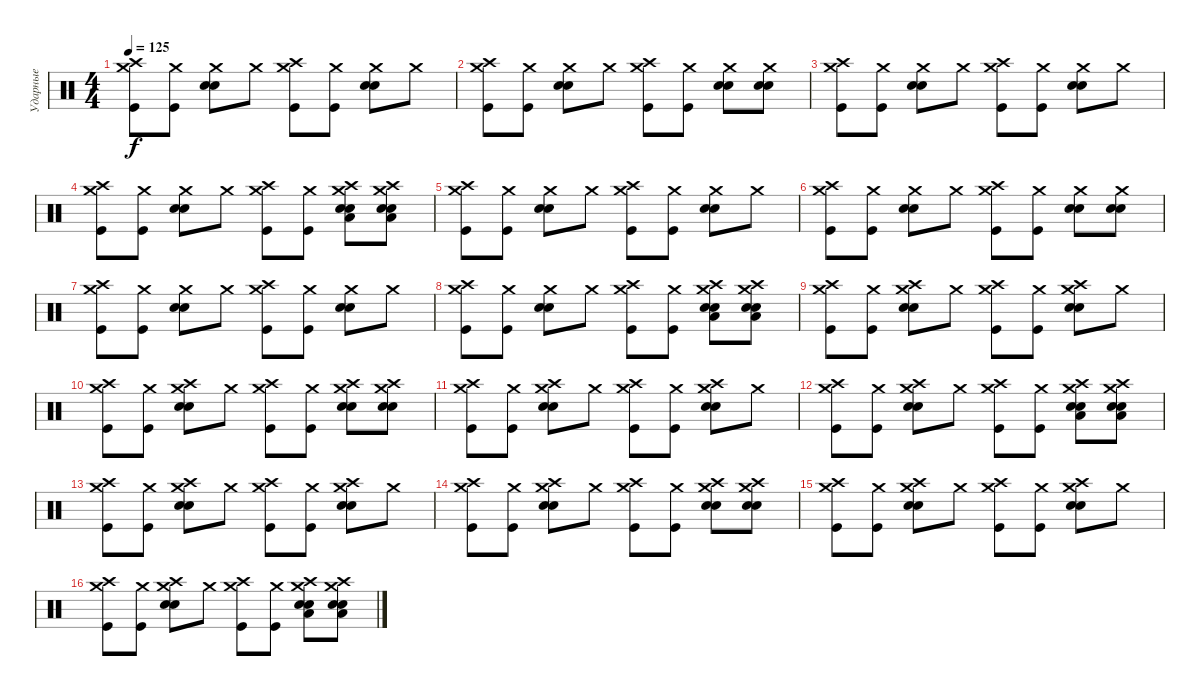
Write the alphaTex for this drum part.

\track ("Ударные" "Ударные") {instrument percussion}
\staff {score}
\articulation defaults
\ts (4 4)
\tempo 125
\clef neutral
\ks c
("Crash medium (hit)" "Crash high (hit)" "Kick (hit)").8{dy f} ("Crash medium (hit)" "Kick (hit)").8 ("Crash medium (hit)" "Snare (hit) 2" "Snare (hit) 2").8 "Crash medium (hit)".8 ("Crash medium (hit)" "Crash high (hit)" "Kick (hit)").8 ("Crash medium (hit)" "Kick (hit)").8 ("Crash medium (hit)" "Snare (hit) 2" "Snare (hit) 2").8 "Crash medium (hit)".8 |
("Crash medium (hit)" "Crash high (hit)" "Kick (hit)").8 ("Crash medium (hit)" "Kick (hit)").8 ("Crash medium (hit)" "Snare (hit) 2" "Snare (hit) 2").8 "Crash medium (hit)".8 ("Crash medium (hit)" "Crash high (hit)" "Kick (hit)").8 ("Crash medium (hit)" "Kick (hit)").8 ("Crash medium (hit)" "Snare (hit) 2" "Snare (hit) 2").8 ("Crash medium (hit)" "Snare (hit) 2" "Snare (hit) 2").8 |
("Crash medium (hit)" "Crash high (hit)" "Kick (hit)").8 ("Crash medium (hit)" "Kick (hit)").8 ("Crash medium (hit)" "Snare (hit) 2" "Snare (hit) 2").8 "Crash medium (hit)".8 ("Crash medium (hit)" "Crash high (hit)" "Kick (hit)").8 ("Crash medium (hit)" "Kick (hit)").8 ("Crash medium (hit)" "Snare (hit) 2" "Snare (hit) 2").8 "Crash medium (hit)".8 |
("Crash medium (hit)" "Crash high (hit)" "Kick (hit)").8 ("Crash medium (hit)" "Kick (hit)").8 ("Crash medium (hit)" "Snare (hit) 2" "Snare (hit) 2").8 "Crash medium (hit)".8 ("Crash medium (hit)" "Crash high (hit)" "Kick (hit)").8 ("Crash medium (hit)" "Kick (hit)").8 ("Crash medium (hit)" "Crash high (hit)" "Low Floor Tom (hit)" "Snare (hit) 2" "Snare (hit) 2").8 ("Crash medium (hit)" "Crash high (hit)" "Low Floor Tom (hit)" "Snare (hit) 2" "Snare (hit) 2").8 |
("Crash medium (hit)" "Crash high (hit)" "Kick (hit)").8 ("Crash medium (hit)" "Kick (hit)").8 ("Crash medium (hit)" "Snare (hit) 2" "Snare (hit) 2").8 "Crash medium (hit)".8 ("Crash medium (hit)" "Crash high (hit)" "Kick (hit)").8 ("Crash medium (hit)" "Kick (hit)").8 ("Crash medium (hit)" "Snare (hit) 2" "Snare (hit) 2").8 "Crash medium (hit)".8 |
("Crash medium (hit)" "Crash high (hit)" "Kick (hit)").8 ("Crash medium (hit)" "Kick (hit)").8 ("Crash medium (hit)" "Snare (hit) 2" "Snare (hit) 2").8 "Crash medium (hit)".8 ("Crash medium (hit)" "Crash high (hit)" "Kick (hit)").8 ("Crash medium (hit)" "Kick (hit)").8 ("Crash medium (hit)" "Snare (hit) 2" "Snare (hit) 2").8 ("Crash medium (hit)" "Snare (hit) 2" "Snare (hit) 2").8 |
("Crash medium (hit)" "Crash high (hit)" "Kick (hit)").8 ("Crash medium (hit)" "Kick (hit)").8 ("Crash medium (hit)" "Snare (hit) 2" "Snare (hit) 2").8 "Crash medium (hit)".8 ("Crash medium (hit)" "Crash high (hit)" "Kick (hit)").8 ("Crash medium (hit)" "Kick (hit)").8 ("Crash medium (hit)" "Snare (hit) 2" "Snare (hit) 2").8 "Crash medium (hit)".8 |
("Crash medium (hit)" "Crash high (hit)" "Kick (hit)").8 ("Crash medium (hit)" "Kick (hit)").8 ("Crash medium (hit)" "Snare (hit) 2" "Snare (hit) 2").8 "Crash medium (hit)".8 ("Crash medium (hit)" "Crash high (hit)" "Kick (hit)").8 ("Crash medium (hit)" "Kick (hit)").8 ("Crash medium (hit)" "Crash high (hit)" "Low Floor Tom (hit)" "Snare (hit) 2" "Snare (hit) 2").8 ("Crash medium (hit)" "Crash high (hit)" "Low Floor Tom (hit)" "Snare (hit) 2" "Snare (hit) 2").8 |
("Crash medium (hit)" "Crash high (hit)" "Kick (hit)").8 ("Crash medium (hit)" "Kick (hit)").8 ("Crash medium (hit)" "Crash high (hit)" "Snare (hit) 2" "Snare (hit) 2").8 "Crash medium (hit)".8 ("Crash medium (hit)" "Crash high (hit)" "Kick (hit)").8 ("Crash medium (hit)" "Kick (hit)").8 ("Crash medium (hit)" "Crash high (hit)" "Snare (hit) 2" "Snare (hit) 2").8 "Crash medium (hit)".8 |
("Crash medium (hit)" "Crash high (hit)" "Kick (hit)").8 ("Crash medium (hit)" "Kick (hit)").8 ("Crash medium (hit)" "Crash high (hit)" "Snare (hit) 2" "Snare (hit) 2").8 "Crash medium (hit)".8 ("Crash medium (hit)" "Crash high (hit)" "Kick (hit)").8 ("Crash medium (hit)" "Kick (hit)").8 ("Crash medium (hit)" "Crash high (hit)" "Snare (hit) 2" "Snare (hit) 2").8 ("Crash medium (hit)" "Crash high (hit)" "Snare (hit) 2" "Snare (hit) 2").8 |
("Crash medium (hit)" "Crash high (hit)" "Kick (hit)").8 ("Crash medium (hit)" "Kick (hit)").8 ("Crash medium (hit)" "Crash high (hit)" "Snare (hit) 2" "Snare (hit) 2").8 "Crash medium (hit)".8 ("Crash medium (hit)" "Crash high (hit)" "Kick (hit)").8 ("Crash medium (hit)" "Kick (hit)").8 ("Crash medium (hit)" "Crash high (hit)" "Snare (hit) 2" "Snare (hit) 2").8 "Crash medium (hit)".8 |
("Crash medium (hit)" "Crash high (hit)" "Kick (hit)").8 ("Crash medium (hit)" "Kick (hit)").8 ("Crash medium (hit)" "Crash high (hit)" "Snare (hit) 2" "Snare (hit) 2").8 "Crash medium (hit)".8 ("Crash medium (hit)" "Crash high (hit)" "Kick (hit)").8 ("Crash medium (hit)" "Kick (hit)").8 ("Crash medium (hit)" "Crash high (hit)" "Low Floor Tom (hit)" "Snare (hit) 2" "Snare (hit) 2").8 ("Crash medium (hit)" "Crash high (hit)" "Low Floor Tom (hit)" "Snare (hit) 2" "Snare (hit) 2").8 |
("Crash medium (hit)" "Crash high (hit)" "Kick (hit)").8 ("Crash medium (hit)" "Kick (hit)").8 ("Crash medium (hit)" "Crash high (hit)" "Snare (hit) 2" "Snare (hit) 2").8 "Crash medium (hit)".8 ("Crash medium (hit)" "Crash high (hit)" "Kick (hit)").8 ("Crash medium (hit)" "Kick (hit)").8 ("Crash medium (hit)" "Crash high (hit)" "Snare (hit) 2" "Snare (hit) 2").8 "Crash medium (hit)".8 |
("Crash medium (hit)" "Crash high (hit)" "Kick (hit)").8 ("Crash medium (hit)" "Kick (hit)").8 ("Crash medium (hit)" "Crash high (hit)" "Snare (hit) 2" "Snare (hit) 2").8 "Crash medium (hit)".8 ("Crash medium (hit)" "Crash high (hit)" "Kick (hit)").8 ("Crash medium (hit)" "Kick (hit)").8 ("Crash medium (hit)" "Crash high (hit)" "Snare (hit) 2" "Snare (hit) 2").8 ("Crash medium (hit)" "Crash high (hit)" "Snare (hit) 2" "Snare (hit) 2").8 |
("Crash medium (hit)" "Crash high (hit)" "Kick (hit)").8 ("Crash medium (hit)" "Kick (hit)").8 ("Crash medium (hit)" "Crash high (hit)" "Snare (hit) 2" "Snare (hit) 2").8 "Crash medium (hit)".8 ("Crash medium (hit)" "Crash high (hit)" "Kick (hit)").8 ("Crash medium (hit)" "Kick (hit)").8 ("Crash medium (hit)" "Crash high (hit)" "Snare (hit) 2" "Snare (hit) 2").8 "Crash medium (hit)".8 |
("Crash medium (hit)" "Crash high (hit)" "Kick (hit)").8 ("Crash medium (hit)" "Kick (hit)").8 ("Crash medium (hit)" "Crash high (hit)" "Snare (hit) 2" "Snare (hit) 2").8 "Crash medium (hit)".8 ("Crash medium (hit)" "Crash high (hit)" "Kick (hit)").8 ("Crash medium (hit)" "Kick (hit)").8 ("Crash medium (hit)" "Crash high (hit)" "Low Floor Tom (hit)" "Snare (hit) 2" "Snare (hit) 2").8 ("Crash medium (hit)" "Crash high (hit)" "Low Floor Tom (hit)" "Snare (hit) 2" "Snare (hit) 2").8
